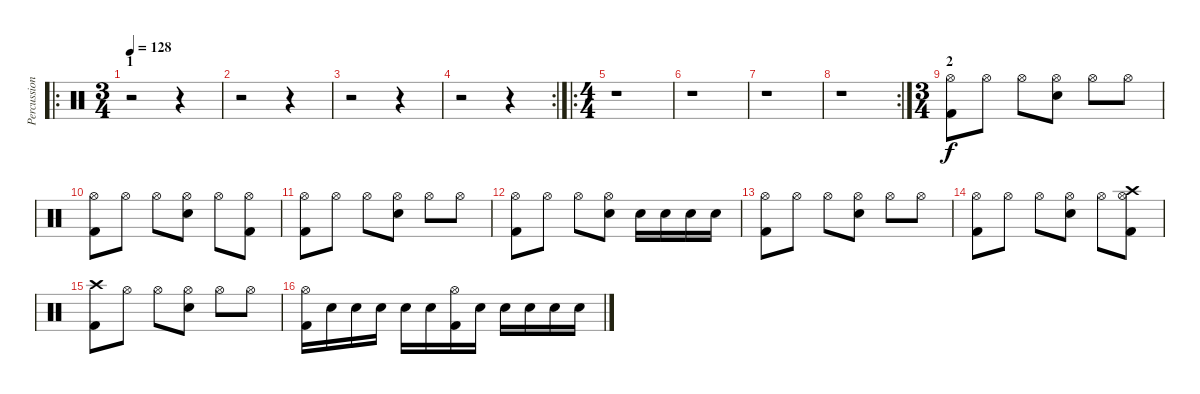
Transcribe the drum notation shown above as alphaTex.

\track ("Percussion" "Percussion") {instrument percussion}
\staff {score}
\articulation defaults
\ro
\ts (3 4)
\section ("" "1")
\tempo 128
\clef neutral
\ks c
r.2{dy f} r.4 |
r.2 r.4 |
r.2 r.4 |
\rc 2
r.2 r.4 |
\ro
\ts (4 4)
r.1 |
r.1 |
r.1 |
\rc 2
r.1 |
\ts (3 4)
\section ("" "2")
("Hi-Hat (open)" "Kick (hit) 2").8 "Hi-Hat (open)".8 "Hi-Hat (open)".8 ("Hi-Hat (open)" "Electric Snare (hit)").8 "Hi-Hat (open)".8 "Hi-Hat (open)".8 |
("Hi-Hat (open)" "Kick (hit) 2").8 "Hi-Hat (open)".8 "Hi-Hat (open)".8 ("Hi-Hat (open)" "Electric Snare (hit)").8 "Hi-Hat (open)".8 ("Hi-Hat (open)" "Kick (hit) 2").8 |
("Hi-Hat (open)" "Kick (hit) 2").8 "Hi-Hat (open)".8 "Hi-Hat (open)".8 ("Hi-Hat (open)" "Electric Snare (hit)").8 "Hi-Hat (open)".8 "Hi-Hat (open)".8 |
("Hi-Hat (open)" "Kick (hit) 2").8 "Hi-Hat (open)".8 "Hi-Hat (open)".8 ("Hi-Hat (open)" "Electric Snare (hit)").8 "Electric Snare (hit)".16 "Electric Snare (hit)".16 "Electric Snare (hit)".16 "Electric Snare (hit)".16 |
("Hi-Hat (open)" "Kick (hit) 2").8 "Hi-Hat (open)".8 "Hi-Hat (open)".8 ("Hi-Hat (open)" "Electric Snare (hit)").8 "Hi-Hat (open)".8 "Hi-Hat (open)".8 |
("Hi-Hat (open)" "Kick (hit) 2").8 "Hi-Hat (open)".8 "Hi-Hat (open)".8 ("Hi-Hat (open)" "Electric Snare (hit)").8 "Hi-Hat (open)".8 ("Crash high (hit)" "Hi-Hat (open)" "Kick (hit) 2").8 |
("Crash high (hit)" "Kick (hit) 2").8 "Hi-Hat (open)".8 "Hi-Hat (open)".8 ("Hi-Hat (open)" "Electric Snare (hit)").8 "Hi-Hat (open)".8 "Hi-Hat (open)".8 |
("Hi-Hat (open)" "Kick (hit) 2").16 "Electric Snare (hit)".16 "Electric Snare (hit)".16 "Electric Snare (hit)".16 "Electric Snare (hit)".16 "Electric Snare (hit)".16 ("Hi-Hat (open)" "Kick (hit) 2").16 "Electric Snare (hit)".16 "Electric Snare (hit)".16 "Electric Snare (hit)".16 "Electric Snare (hit)".16 "Electric Snare (hit)".16
